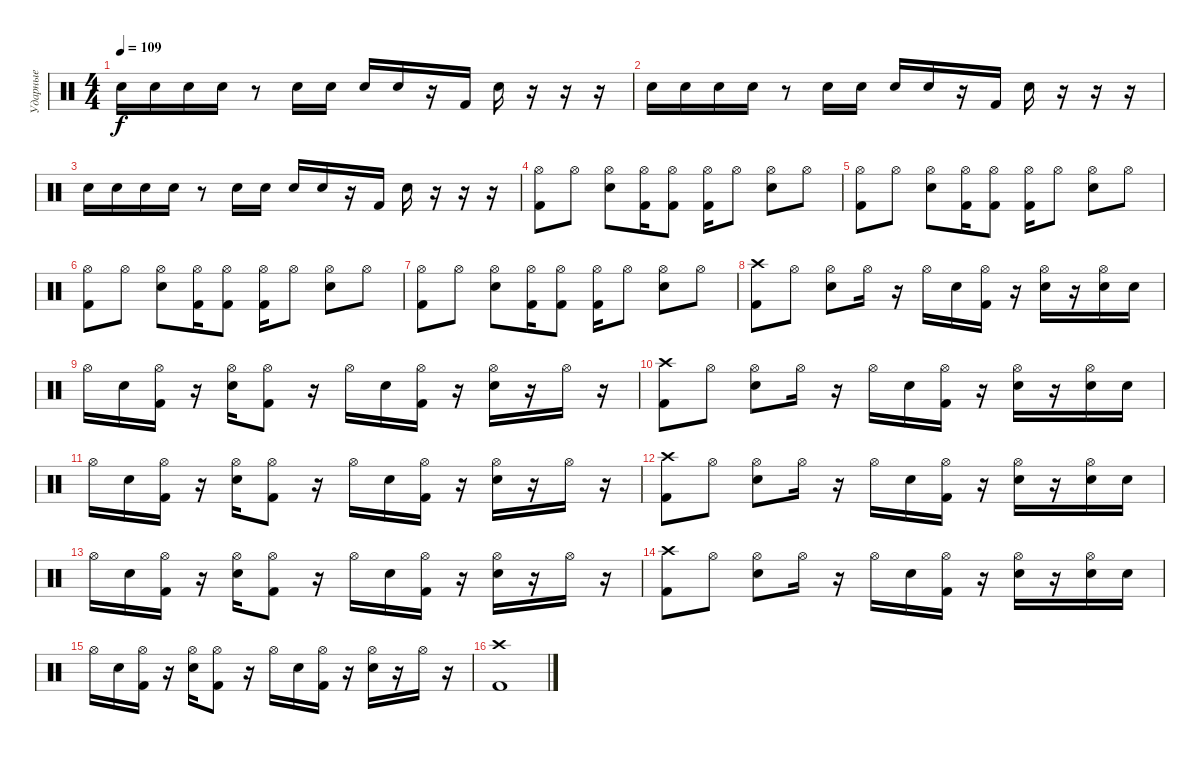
\track ("Ударные" "Ударные") {instrument percussion}
\staff {score}
\articulation defaults
\ts (4 4)
\tempo 109
\clef neutral
\ks c "Electric Snare (hit)".16{dy f} "Electric Snare (hit)".16 "Electric Snare (hit)".16 "Electric Snare (hit)".16
r.8 "Electric Snare (hit)".16 "Electric Snare (hit)".16 "Electric Snare (hit)".16 "Electric Snare (hit)".16 r.16 "Kick (hit) 2".16 "Electric Snare (hit)".16 r.16 r.16 r.16 |
"Electric Snare (hit)".16 "Electric Snare (hit)".16 "Electric Snare (hit)".16 "Electric Snare (hit)".16 r.8 "Electric Snare (hit)".16 "Electric Snare (hit)".16 "Electric Snare (hit)".16 "Electric Snare (hit)".16 r.16 "Kick (hit) 2".16 "Electric Snare (hit)".16 r.16 r.16 r.16 |
"Electric Snare (hit)".16 "Electric Snare (hit)".16 "Electric Snare (hit)".16 "Electric Snare (hit)".16 r.8 "Electric Snare (hit)".16 "Electric Snare (hit)".16 "Electric Snare (hit)".16 "Electric Snare (hit)".16 r.16 "Kick (hit) 2".16 "Electric Snare (hit)".16 r.16 r.16 r.16 |
("Kick (hit) 2" "Hi-Hat (open)").8 "Hi-Hat (open)".8 ("Electric Snare (hit)" "Hi-Hat (open)").8 ("Kick (hit) 2" "Hi-Hat (open)").16 ("Kick (hit) 2" "Hi-Hat (open)").8 ("Kick (hit) 2" "Hi-Hat (open)").16 "Hi-Hat (open)".8 ("Electric Snare (hit)" "Hi-Hat (open)").8 "Hi-Hat (open)".8 |
("Kick (hit) 2" "Hi-Hat (open)").8 "Hi-Hat (open)".8 ("Electric Snare (hit)" "Hi-Hat (open)").8 ("Kick (hit) 2" "Hi-Hat (open)").16 ("Kick (hit) 2" "Hi-Hat (open)").8 ("Kick (hit) 2" "Hi-Hat (open)").16 "Hi-Hat (open)".8 ("Electric Snare (hit)" "Hi-Hat (open)").8 "Hi-Hat (open)".8 |
("Kick (hit) 2" "Hi-Hat (open)").8 "Hi-Hat (open)".8 ("Electric Snare (hit)" "Hi-Hat (open)").8 ("Kick (hit) 2" "Hi-Hat (open)").16 ("Kick (hit) 2" "Hi-Hat (open)").8 ("Kick (hit) 2" "Hi-Hat (open)").16 "Hi-Hat (open)".8 ("Electric Snare (hit)" "Hi-Hat (open)").8 "Hi-Hat (open)".8 |
("Kick (hit) 2" "Hi-Hat (open)").8 "Hi-Hat (open)".8 ("Electric Snare (hit)" "Hi-Hat (open)").8 ("Kick (hit) 2" "Hi-Hat (open)").16 ("Kick (hit) 2" "Hi-Hat (open)").8 ("Kick (hit) 2" "Hi-Hat (open)").16 "Hi-Hat (open)".8 ("Electric Snare (hit)" "Hi-Hat (open)").8 "Hi-Hat (open)".8 |
("Kick (hit) 2" "Crash high (hit)").8 "Hi-Hat (open)".8 ("Electric Snare (hit)" "Hi-Hat (open)").8 "Hi-Hat (open)".16 r.16 "Hi-Hat (open)".16 "Electric Snare (hit)".16 ("Kick (hit) 2" "Hi-Hat (open)").16 r.16 ("Electric Snare (hit)" "Hi-Hat (open)").16 r.16 ("Electric Snare (hit)" "Hi-Hat (open)").16 "Electric Snare (hit)".16 |
"Hi-Hat (open)".16 "Electric Snare (hit)".16 ("Kick (hit) 2" "Hi-Hat (open)").16 r.16 ("Electric Snare (hit)" "Hi-Hat (open)").16 ("Kick (hit) 2" "Hi-Hat (open)").8 r.16 "Hi-Hat (open)".16 "Electric Snare (hit)".16 ("Kick (hit) 2" "Hi-Hat (open)").16 r.16 ("Electric Snare (hit)" "Hi-Hat (open)").16 r.16 "Hi-Hat (open)".16 r.16 |
("Kick (hit) 2" "Crash high (hit)").8 "Hi-Hat (open)".8 ("Electric Snare (hit)" "Hi-Hat (open)").8 "Hi-Hat (open)".16 r.16 "Hi-Hat (open)".16 "Electric Snare (hit)".16 ("Kick (hit) 2" "Hi-Hat (open)").16 r.16 ("Electric Snare (hit)" "Hi-Hat (open)").16 r.16 ("Electric Snare (hit)" "Hi-Hat (open)").16 "Electric Snare (hit)".16 |
"Hi-Hat (open)".16 "Electric Snare (hit)".16 ("Kick (hit) 2" "Hi-Hat (open)").16 r.16 ("Electric Snare (hit)" "Hi-Hat (open)").16 ("Kick (hit) 2" "Hi-Hat (open)").8 r.16 "Hi-Hat (open)".16 "Electric Snare (hit)".16 ("Kick (hit) 2" "Hi-Hat (open)").16 r.16 ("Electric Snare (hit)" "Hi-Hat (open)").16 r.16 "Hi-Hat (open)".16 r.16 |
("Kick (hit) 2" "Crash high (hit)").8 "Hi-Hat (open)".8 ("Electric Snare (hit)" "Hi-Hat (open)").8 "Hi-Hat (open)".16 r.16 "Hi-Hat (open)".16 "Electric Snare (hit)".16 ("Kick (hit) 2" "Hi-Hat (open)").16 r.16 ("Electric Snare (hit)" "Hi-Hat (open)").16 r.16 ("Electric Snare (hit)" "Hi-Hat (open)").16 "Electric Snare (hit)".16 |
"Hi-Hat (open)".16 "Electric Snare (hit)".16 ("Kick (hit) 2" "Hi-Hat (open)").16 r.16 ("Electric Snare (hit)" "Hi-Hat (open)").16 ("Kick (hit) 2" "Hi-Hat (open)").8 r.16 "Hi-Hat (open)".16 "Electric Snare (hit)".16 ("Kick (hit) 2" "Hi-Hat (open)").16 r.16 ("Electric Snare (hit)" "Hi-Hat (open)").16 r.16 "Hi-Hat (open)".16 r.16 |
("Kick (hit) 2" "Crash high (hit)").8 "Hi-Hat (open)".8 ("Electric Snare (hit)" "Hi-Hat (open)").8 "Hi-Hat (open)".16 r.16 "Hi-Hat (open)".16 "Electric Snare (hit)".16 ("Kick (hit) 2" "Hi-Hat (open)").16 r.16 ("Electric Snare (hit)" "Hi-Hat (open)").16 r.16 ("Electric Snare (hit)" "Hi-Hat (open)").16 "Electric Snare (hit)".16 |
"Hi-Hat (open)".16 "Electric Snare (hit)".16 ("Kick (hit) 2" "Hi-Hat (open)").16 r.16 ("Electric Snare (hit)" "Hi-Hat (open)").16 ("Kick (hit) 2" "Hi-Hat (open)").8 r.16 "Hi-Hat (open)".16 "Electric Snare (hit)".16 ("Kick (hit) 2" "Hi-Hat (open)").16 r.16 ("Electric Snare (hit)" "Hi-Hat (open)").16 r.16 "Hi-Hat (open)".16 r.16 |
("Kick (hit) 2" "Crash high (hit)").1
